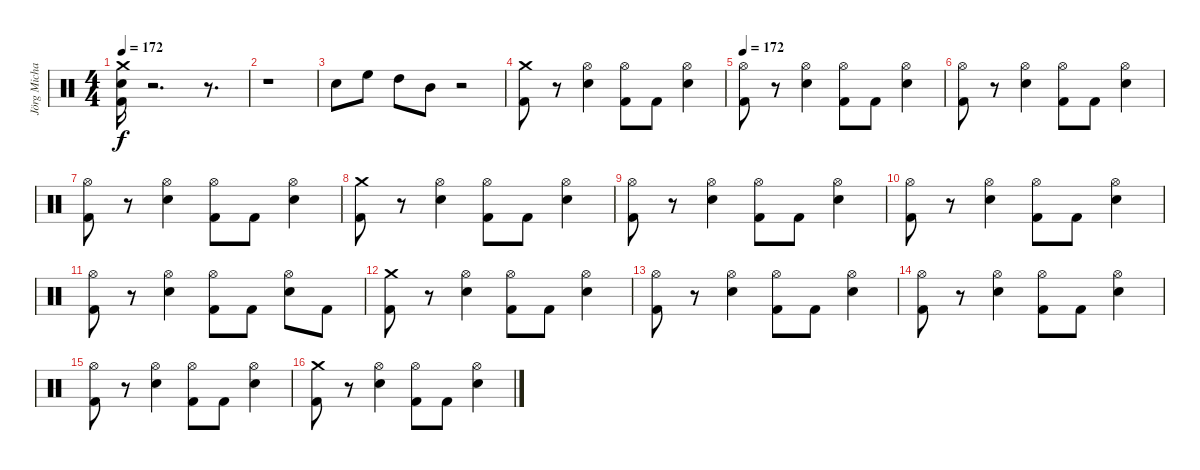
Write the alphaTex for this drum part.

\track ("Jörg Michael" "Jörg Micha") {instrument percussion}
\staff {score}
\articulation defaults
\ts (4 4)
\tempo 172
\clef neutral
\ks c
("Crash medium (hit)" "Kick (hit) 2" "Electric Snare (hit)").16{dy f} r.2{d} r.8{d} |
r.1 |
"Electric Snare (hit)".8 "High Floor Tom (hit)".8 "High Tom (hit)".8 "Mid Tom (hit)".8 r.2 |
("Kick (hit) 2" "Crash medium (hit)").8 r.8 ("Hi-Hat (open)" "Electric Snare (hit)").4 ("Hi-Hat (open)" "Kick (hit) 2").8 "Kick (hit) 2".8 ("Hi-Hat (open)" "Electric Snare (hit)").4 |
\tempo 172
("Hi-Hat (open)" "Kick (hit) 2").8 r.8 ("Hi-Hat (open)" "Electric Snare (hit)").4 ("Hi-Hat (open)" "Kick (hit) 2").8 "Kick (hit) 2".8 ("Hi-Hat (open)" "Electric Snare (hit)").4 |
("Hi-Hat (open)" "Kick (hit) 2").8 r.8 ("Hi-Hat (open)" "Electric Snare (hit)").4 ("Hi-Hat (open)" "Kick (hit) 2").8 "Kick (hit) 2".8 ("Hi-Hat (open)" "Electric Snare (hit)").4 |
("Hi-Hat (open)" "Kick (hit) 2").8 r.8 ("Hi-Hat (open)" "Electric Snare (hit)").4 ("Hi-Hat (open)" "Kick (hit) 2").8 "Kick (hit) 2".8 ("Hi-Hat (open)" "Electric Snare (hit)").4 |
("Kick (hit) 2" "Crash medium (hit)").8 r.8 ("Hi-Hat (open)" "Electric Snare (hit)").4 ("Hi-Hat (open)" "Kick (hit) 2").8 "Kick (hit) 2".8 ("Hi-Hat (open)" "Electric Snare (hit)").4 |
("Hi-Hat (open)" "Kick (hit) 2").8 r.8 ("Hi-Hat (open)" "Electric Snare (hit)").4 ("Hi-Hat (open)" "Kick (hit) 2").8 "Kick (hit) 2".8 ("Hi-Hat (open)" "Electric Snare (hit)").4 |
("Hi-Hat (open)" "Kick (hit) 2").8 r.8 ("Hi-Hat (open)" "Electric Snare (hit)").4 ("Hi-Hat (open)" "Kick (hit) 2").8 "Kick (hit) 2".8 ("Hi-Hat (open)" "Electric Snare (hit)").4 |
("Hi-Hat (open)" "Kick (hit) 2").8 r.8 ("Hi-Hat (open)" "Electric Snare (hit)").4 ("Hi-Hat (open)" "Kick (hit) 2").8 "Kick (hit) 2".8 ("Hi-Hat (open)" "Electric Snare (hit)").8 "Kick (hit) 2".8 |
("Kick (hit) 2" "Crash medium (hit)").8 r.8 ("Hi-Hat (open)" "Electric Snare (hit)").4 ("Hi-Hat (open)" "Kick (hit) 2").8 "Kick (hit) 2".8 ("Hi-Hat (open)" "Electric Snare (hit)").4 |
("Hi-Hat (open)" "Kick (hit) 2").8 r.8 ("Hi-Hat (open)" "Electric Snare (hit)").4 ("Hi-Hat (open)" "Kick (hit) 2").8 "Kick (hit) 2".8 ("Hi-Hat (open)" "Electric Snare (hit)").4 |
("Hi-Hat (open)" "Kick (hit) 2").8 r.8 ("Hi-Hat (open)" "Electric Snare (hit)").4 ("Hi-Hat (open)" "Kick (hit) 2").8 "Kick (hit) 2".8 ("Hi-Hat (open)" "Electric Snare (hit)").4 |
("Hi-Hat (open)" "Kick (hit) 2").8 r.8 ("Hi-Hat (open)" "Electric Snare (hit)").4 ("Hi-Hat (open)" "Kick (hit) 2").8 "Kick (hit) 2".8 ("Hi-Hat (open)" "Electric Snare (hit)").4 |
("Kick (hit) 2" "Crash medium (hit)").8 r.8 ("Hi-Hat (open)" "Electric Snare (hit)").4 ("Hi-Hat (open)" "Kick (hit) 2").8 "Kick (hit) 2".8 ("Hi-Hat (open)" "Electric Snare (hit)").4
